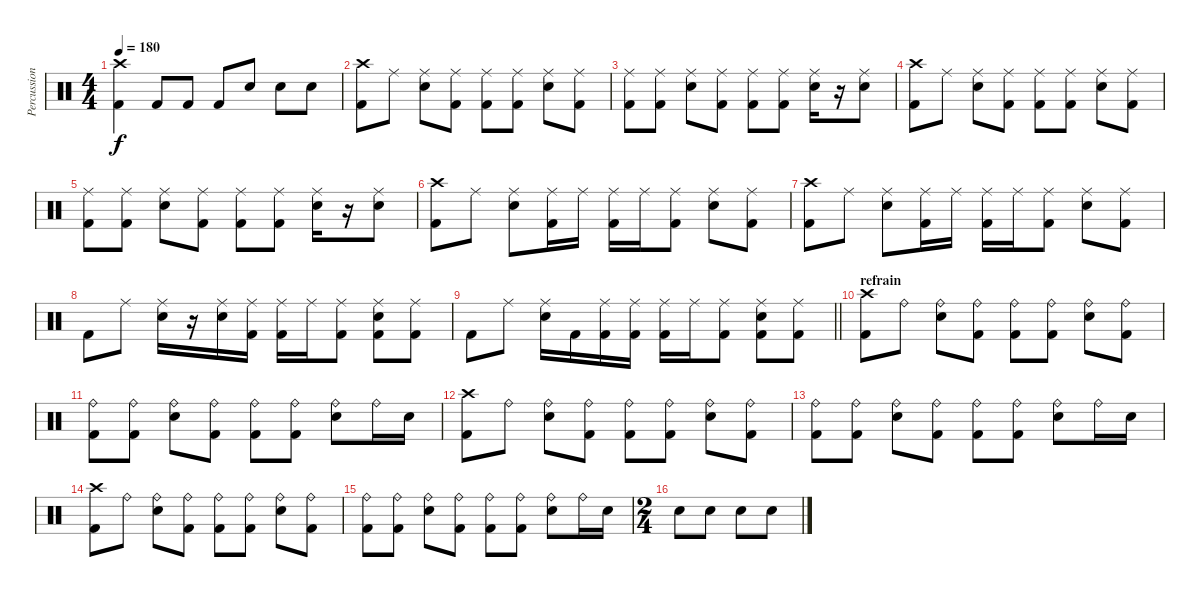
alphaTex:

\track ("Percussions" "Percussion") {instrument percussion}
\staff {score}
\articulation defaults
\ts (4 4)
\tempo 180
\clef neutral
\ks c
("Crash high (hit)" "Kick (hit) 2").4{dy f} "Kick (hit) 2".8 "Kick (hit) 2".8 "Kick (hit) 2".8 "Snare (hit) 2".8 "Snare (hit) 2".8 "Snare (hit) 2".8 |
("Crash high (hit)" "Kick (hit) 2").8 "Ride (middle)".8 ("Ride (middle)" "Snare (hit) 2").8 ("Ride (middle)" "Kick (hit) 2").8 ("Ride (middle)" "Kick (hit) 2").8 ("Ride (middle)" "Kick (hit) 2").8 ("Ride (middle)" "Snare (hit) 2").8 ("Ride (middle)" "Kick (hit) 2").8 |
("Ride (middle)" "Kick (hit) 2").8 ("Ride (middle)" "Kick (hit) 2").8 ("Ride (middle)" "Snare (hit) 2").8 ("Ride (middle)" "Kick (hit) 2").8 ("Ride (middle)" "Kick (hit) 2").8 ("Ride (middle)" "Kick (hit) 2").8 ("Ride (middle)" "Snare (hit) 2").16 r.16 ("Ride (middle)" "Snare (hit) 2").8 |
("Crash high (hit)" "Kick (hit) 2").8 "Ride (middle)".8 ("Ride (middle)" "Snare (hit) 2").8 ("Ride (middle)" "Kick (hit) 2").8 ("Ride (middle)" "Kick (hit) 2").8 ("Ride (middle)" "Kick (hit) 2").8 ("Ride (middle)" "Snare (hit) 2").8 ("Ride (middle)" "Kick (hit) 2").8 |
("Ride (middle)" "Kick (hit) 2").8 ("Ride (middle)" "Kick (hit) 2").8 ("Ride (middle)" "Snare (hit) 2").8 ("Ride (middle)" "Kick (hit) 2").8 ("Ride (middle)" "Kick (hit) 2").8 ("Ride (middle)" "Kick (hit) 2").8 ("Ride (middle)" "Snare (hit) 2").16 r.16 ("Ride (middle)" "Snare (hit) 2").8 |
("Crash high (hit)" "Kick (hit) 2").8 "Ride (middle)".8 ("Ride (middle)" "Snare (hit) 2").8 ("Ride (middle)" "Kick (hit) 2").16 "Ride (middle)".16 ("Ride (middle)" "Kick (hit) 2").16 "Ride (middle)".16 ("Ride (middle)" "Kick (hit) 2").8 ("Ride (middle)" "Snare (hit) 2").8 ("Ride (middle)" "Kick (hit) 2").8 |
("Crash high (hit)" "Kick (hit) 2").8 "Ride (middle)".8 ("Ride (middle)" "Snare (hit) 2").8 ("Ride (middle)" "Kick (hit) 2").16 "Ride (middle)".16 ("Ride (middle)" "Kick (hit) 2").16 "Ride (middle)".16 ("Ride (middle)" "Kick (hit) 2").8 ("Ride (middle)" "Snare (hit) 2").8 ("Ride (middle)" "Kick (hit) 2").8 |
"Kick (hit) 2".8 "Ride (middle)".8 ("Ride (middle)" "Snare (hit) 2").16 r.16 ("Ride (middle)" "Snare (hit) 2").16 ("Ride (middle)" "Kick (hit) 2").16 ("Ride (middle)" "Kick (hit) 2").16 "Ride (middle)".16 ("Ride (middle)" "Kick (hit) 2").8 ("Ride (middle)" "Snare (hit) 2" "Kick (hit) 2").8 ("Ride (middle)" "Kick (hit) 2").8 |
\barLineRight lightlight "Kick (hit) 2".8 "Ride (middle)".8
("Ride (middle)" "Snare (hit) 2").16 "Kick (hit) 2".16 ("Ride (middle)" "Kick (hit) 2").16 ("Ride (middle)" "Kick (hit) 2").16 ("Ride (middle)" "Kick (hit) 2").16 "Ride (middle)".16 ("Ride (middle)" "Kick (hit) 2").8 ("Ride (middle)" "Snare (hit) 2" "Kick (hit) 2").8 ("Ride (middle)" "Kick (hit) 2").8 |
\section ("" "refrain")
("Crash high (hit)" "Kick (hit) 2").8 "Ride (bell)".8 ("Ride (bell)" "Snare (hit) 2").8 ("Ride (bell)" "Kick (hit) 2").8 ("Ride (bell)" "Kick (hit) 2").8 ("Ride (bell)" "Kick (hit) 2").8 ("Ride (bell)" "Snare (hit) 2").8 ("Ride (bell)" "Kick (hit) 2").8 |
("Ride (bell)" "Kick (hit) 2").8 ("Ride (bell)" "Kick (hit) 2").8 ("Ride (bell)" "Snare (hit) 2").8 ("Ride (bell)" "Kick (hit) 2").8 ("Ride (bell)" "Kick (hit) 2").8 ("Ride (bell)" "Kick (hit) 2").8 ("Ride (bell)" "Snare (hit) 2").8 "Ride (bell)".16 "Snare (hit) 2".16 |
("Crash high (hit)" "Kick (hit) 2").8 "Ride (bell)".8 ("Ride (bell)" "Snare (hit) 2").8 ("Ride (bell)" "Kick (hit) 2").8 ("Ride (bell)" "Kick (hit) 2").8 ("Ride (bell)" "Kick (hit) 2").8 ("Ride (bell)" "Snare (hit) 2").8 ("Ride (bell)" "Kick (hit) 2").8 |
("Ride (bell)" "Kick (hit) 2").8 ("Ride (bell)" "Kick (hit) 2").8 ("Ride (bell)" "Snare (hit) 2").8 ("Ride (bell)" "Kick (hit) 2").8 ("Ride (bell)" "Kick (hit) 2").8 ("Ride (bell)" "Kick (hit) 2").8 ("Ride (bell)" "Snare (hit) 2").8 "Ride (bell)".16 "Snare (hit) 2".16 |
("Crash high (hit)" "Kick (hit) 2").8 "Ride (bell)".8 ("Ride (bell)" "Snare (hit) 2").8 ("Ride (bell)" "Kick (hit) 2").8 ("Ride (bell)" "Kick (hit) 2").8 ("Ride (bell)" "Kick (hit) 2").8 ("Ride (bell)" "Snare (hit) 2").8 ("Ride (bell)" "Kick (hit) 2").8 |
("Ride (bell)" "Kick (hit) 2").8 ("Ride (bell)" "Kick (hit) 2").8 ("Ride (bell)" "Snare (hit) 2").8 ("Ride (bell)" "Kick (hit) 2").8 ("Ride (bell)" "Kick (hit) 2").8 ("Ride (bell)" "Kick (hit) 2").8 ("Ride (bell)" "Snare (hit) 2").8 "Ride (bell)".16 "Snare (hit) 2".16 |
\ts (2 4)
"Snare (hit) 2".8 "Snare (hit) 2".8 "Snare (hit) 2".8 "Snare (hit) 2".8
